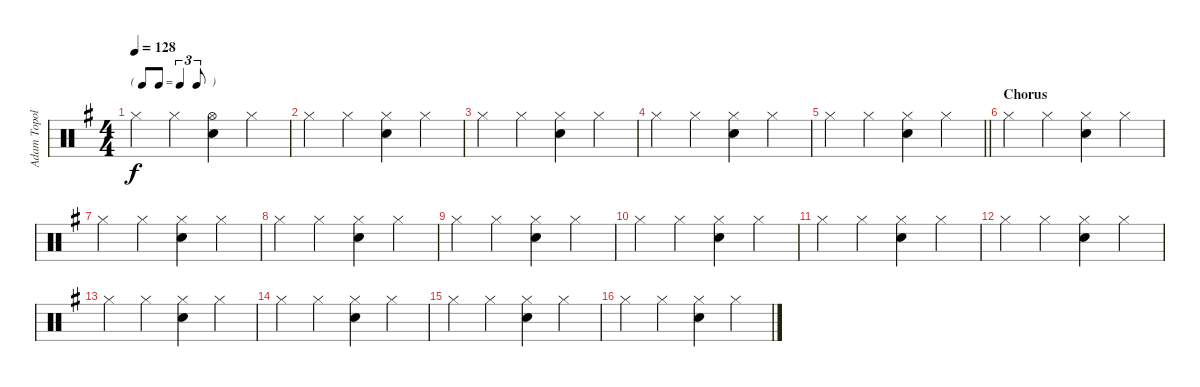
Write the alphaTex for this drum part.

\track ("Adam Topol" "Adam Topol") {instrument percussion}
\staff {score}
\articulation defaults
\ts (4 4)
\tf triplet8th
\tempo 128
\clef neutral
\ks g "Hi-Hat (closed)".4{dy f} "Hi-Hat (closed)".4
("Hi-Hat (open)" "Snare (hit) 2").4 "Hi-Hat (closed)".4 |
"Hi-Hat (closed)".4 "Hi-Hat (closed)".4 ("Hi-Hat (closed)" "Snare (hit) 2").4 "Hi-Hat (closed)".4 |
"Hi-Hat (closed)".4 "Hi-Hat (closed)".4 ("Hi-Hat (closed)" "Snare (hit) 2").4 "Hi-Hat (closed)".4 |
"Hi-Hat (closed)".4 "Hi-Hat (closed)".4 ("Hi-Hat (closed)" "Snare (hit) 2").4 "Hi-Hat (closed)".4 |
\barLineRight lightlight "Hi-Hat (closed)".4 "Hi-Hat (closed)".4
("Hi-Hat (closed)" "Snare (hit) 2").4 "Hi-Hat (closed)".4 |
\section ("" "Chorus")
"Hi-Hat (closed)".4 "Hi-Hat (closed)".4 ("Hi-Hat (closed)" "Snare (hit) 2").4 "Hi-Hat (closed)".4 |
"Hi-Hat (closed)".4 "Hi-Hat (closed)".4 ("Hi-Hat (closed)" "Snare (hit) 2").4 "Hi-Hat (closed)".4 |
"Hi-Hat (closed)".4 "Hi-Hat (closed)".4 ("Hi-Hat (closed)" "Snare (hit) 2").4 "Hi-Hat (closed)".4 |
"Hi-Hat (closed)".4 "Hi-Hat (closed)".4 ("Hi-Hat (closed)" "Snare (hit) 2").4 "Hi-Hat (closed)".4 |
"Hi-Hat (closed)".4 "Hi-Hat (closed)".4 ("Hi-Hat (closed)" "Snare (hit) 2").4 "Hi-Hat (closed)".4 |
"Hi-Hat (closed)".4 "Hi-Hat (closed)".4 ("Hi-Hat (closed)" "Snare (hit) 2").4 "Hi-Hat (closed)".4 |
"Hi-Hat (closed)".4 "Hi-Hat (closed)".4 ("Hi-Hat (closed)" "Snare (hit) 2").4 "Hi-Hat (closed)".4 |
"Hi-Hat (closed)".4 "Hi-Hat (closed)".4 ("Hi-Hat (closed)" "Snare (hit) 2").4 "Hi-Hat (closed)".4 |
"Hi-Hat (closed)".4 "Hi-Hat (closed)".4 ("Hi-Hat (closed)" "Snare (hit) 2").4 "Hi-Hat (closed)".4 |
"Hi-Hat (closed)".4 "Hi-Hat (closed)".4 ("Hi-Hat (closed)" "Snare (hit) 2").4 "Hi-Hat (closed)".4 |
"Hi-Hat (closed)".4 "Hi-Hat (closed)".4 ("Hi-Hat (closed)" "Snare (hit) 2").4 "Hi-Hat (closed)".4
